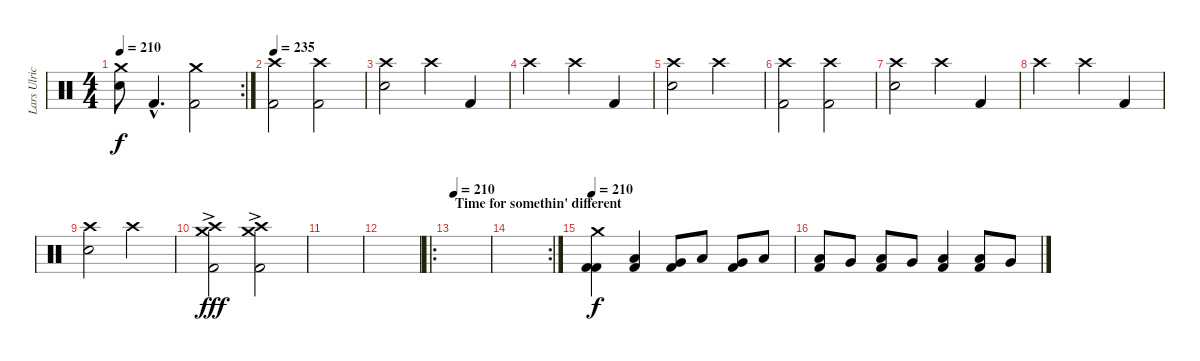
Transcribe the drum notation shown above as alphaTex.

\track ("Lars Ulrich" "Lars Ulric") {instrument percussion}
\staff {score}
\articulation defaults
\rc 2
\ts (4 4)
\tempo 210
\clef neutral
\ks c
("Crash medium (hit)" "Snare (hit) 2").8{dy f} "Kick (hit) 2"{hac}.4{d} ("Crash medium (hit)" "Kick (hit) 2").2 |
\tempo 235
("Crash high (hit)" "Kick (hit) 2").2 ("Crash high (hit)" "Kick (hit) 2").2 |
("Crash high (hit)" "Snare (hit) 2").2 "Crash high (hit)".4 "Kick (hit) 2".4 |
"Crash high (hit)".2 "Crash high (hit)".4 "Kick (hit) 2".4 |
("Crash high (hit)" "Snare (hit) 2").2 "Crash high (hit)".2 |
("Crash high (hit)" "Kick (hit) 2").2 ("Crash high (hit)" "Kick (hit) 2").2 |
("Crash high (hit)" "Snare (hit) 2").2 "Crash high (hit)".4 "Kick (hit) 2".4 |
"Crash high (hit)".2 "Crash high (hit)".4 "Kick (hit) 2".4 |
("Crash high (hit)" "Snare (hit) 2").2 "Crash high (hit)".2 |
("Crash high (hit)"{ac} "Crash medium (hit)"{ac} "Kick (hit) 2"{ac}).2{dy fff} ("Crash high (hit)"{ac} "Crash medium (hit)"{ac} "Kick (hit) 2"{ac}).2 |
|
|
\ro
\section ("" "Time for somethin' different")
\tempo 210
|
\rc 2
|
\tempo 210
("Kick (hit) 2" "Crash medium (hit)" "Kick (hit) 2").4{dy f} ("Low Floor Tom (hit)" "Kick (hit) 2").4 ("Very Low Tom (hit)" "Kick (hit) 2").8 "Low Floor Tom (hit)".8 ("Very Low Tom (hit)" "Kick (hit) 2").8 "Low Floor Tom (hit)".8 |
("Low Floor Tom (hit)" "Kick (hit) 2").8 "Very Low Tom (hit)".8 ("Low Floor Tom (hit)" "Kick (hit) 2").8 "Very Low Tom (hit)".8 ("Low Floor Tom (hit)" "Kick (hit) 2").4 ("Low Floor Tom (hit)" "Kick (hit) 2").8 "Very Low Tom (hit)".8
